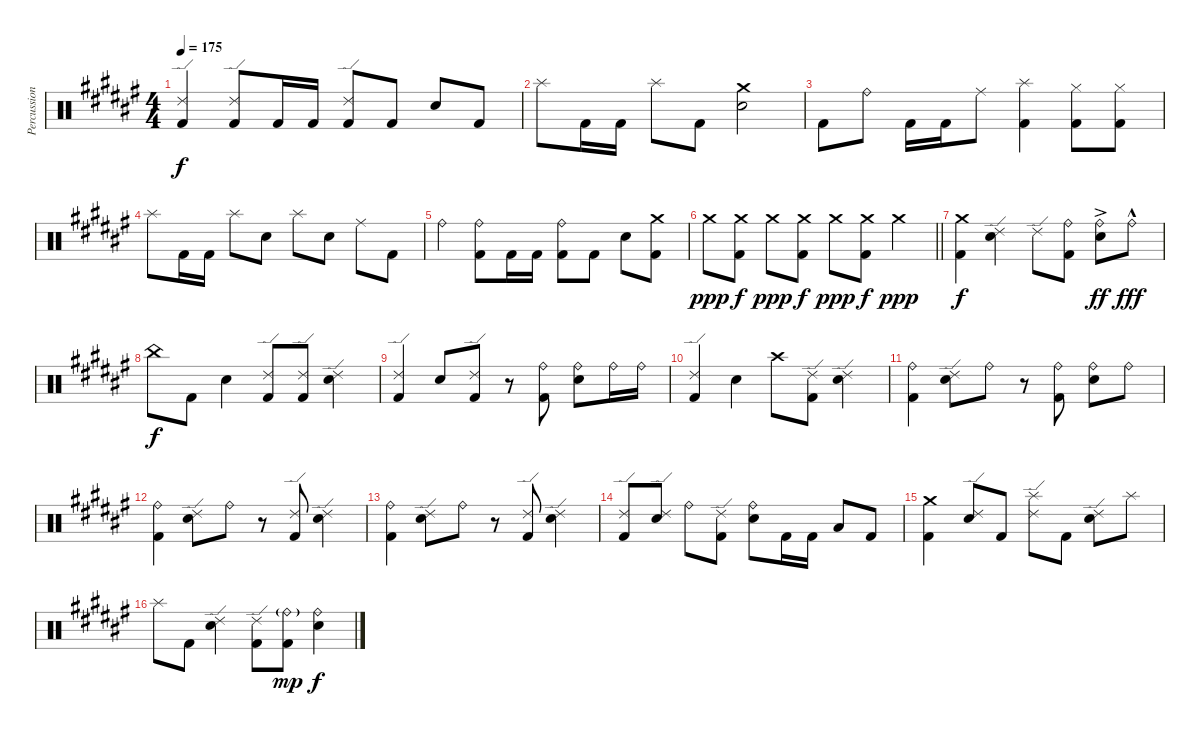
\track ("Percussions" "Percussion") {instrument percussion}
\staff {score}
\articulation defaults
\ts (4 4)
\tempo 175
\clef neutral
\ks f#
("Ride (edge) 2" "Kick (hit) 2").4{dy f} ("Ride (edge) 2" "Kick (hit) 2").8 "Kick (hit) 2".16 "Kick (hit) 2".16 ("Ride (edge) 2" "Kick (hit) 2").8 "Kick (hit) 2".8 "Snare (hit) 2".8 "Kick (hit) 2".8 |
"Splash (hit)".8 "Kick (hit) 2".16 "Kick (hit) 2".16 "Splash (hit)".8 "Kick (hit) 2".8 ("Crash medium (hit)" "Snare (hit) 2").2 |
"Kick (hit) 2".8 "Ride (bell)".8 "Kick (hit) 2".16 "Kick (hit) 2".16 "Ride (middle)".8 ("Splash (hit)" "Kick (hit) 2").4 ("Hi-Hat (closed)" "Kick (hit) 2").8 ("Hi-Hat (closed)" "Kick (hit) 2").8 |
"Splash (hit)".8 "Kick (hit) 2".16 "Kick (hit) 2".16 "Splash (hit)".8 "Snare (hit) 2".8 "Splash (hit)".8 "Snare (hit) 2".8 "Ride (middle)".8 "Kick (hit) 2".8 |
"Ride (bell)".4 ("Ride (bell)" "Kick (hit) 2").8 "Kick (hit) 2".16 "Kick (hit) 2".16 ("Ride (bell)" "Kick (hit) 2").8 "Kick (hit) 2".8 "Snare (hit) 2".8 ("Crash medium (hit)" "Kick (hit) 2").8 |
\barLineRight lightlight "Crash medium (hit)".8{dy ppp}
("Crash medium (hit)" "Kick (hit) 2").8{dy f} "Crash medium (hit)".8{dy ppp} ("Crash medium (hit)" "Kick (hit) 2").8{dy f} "Crash medium (hit)".8{dy ppp} ("Crash medium (hit)" "Kick (hit) 2").8{dy f} "Crash medium (hit)".4{dy ppp} |
("Crash medium (hit)" "Kick (hit) 2").4{dy f} ("Ride (edge) 2" "Snare (hit) 2").4 "Ride (edge) 2".8 ("Ride (bell)" "Kick (hit) 2").8 ("Ride (bell)"{ac} "Snare (hit) 2").8{dy ff} "Ride (bell)"{hac}.8{dy fff} |
"China (hit)".8{dy f} "Kick (hit) 2".8 "Snare (hit) 2".4 ("Ride (edge) 2" "Kick (hit) 2").8 ("Ride (edge) 2" "Kick (hit) 2").8 ("Ride (edge) 2" "Snare (hit) 2").4 |
("Ride (edge) 2" "Kick (hit) 2").4 "Snare (hit) 2".8 ("Ride (edge) 2" "Kick (hit) 2").8 r.8 ("Ride (bell)" "Kick (hit) 2").8 ("Ride (bell)" "Snare (hit) 2").8 "Ride (bell)".16 "Ride (bell)".16 |
("Ride (edge) 2" "Kick (hit) 2").4 "Snare (hit) 2".4 "Crash high (hit)".8 ("Ride (edge) 2" "Kick (hit) 2").8 ("Ride (edge) 2" "Snare (hit) 2").4 |
("Ride (bell)" "Kick (hit) 2").4 ("Ride (edge) 2" "Snare (hit) 2").8 "Ride (bell)".8 r.8 ("Ride (bell)" "Kick (hit) 2").8 ("Ride (bell)" "Snare (hit) 2").8 "Ride (bell)".8 |
("Ride (bell)" "Kick (hit) 2").4 ("Ride (edge) 2" "Snare (hit) 2").8 "Ride (bell)".8 r.8 ("Ride (edge) 2" "Kick (hit) 2").8 ("Ride (edge) 2" "Snare (hit) 2").4 |
("Ride (bell)" "Kick (hit) 2").4 ("Ride (edge) 2" "Snare (hit) 2").8 "Ride (bell)".8 r.8 ("Ride (edge) 2" "Kick (hit) 2").8 ("Ride (edge) 2" "Snare (hit) 2").4 |
("Ride (edge) 2" "Kick (hit) 2").8 ("Ride (edge) 2" "Snare (hit) 2").8 "Ride (bell)".8 ("Ride (edge) 2" "Kick (hit) 2").8 ("Ride (bell)" "Snare (hit) 2").8 "Kick (hit) 2".16 "Kick (hit) 2".16 "Low Tom (hit)".8 "Kick (hit) 2".8 |
("Crash medium (hit)" "Kick (hit) 2").4 ("Ride (edge) 2" "Snare (hit) 2").8 "Kick (hit) 2".8 ("Splash (hit)" "Ride (edge) 2").8 "Kick (hit) 2".8 ("Ride (edge) 2" "Snare (hit) 2").8 "Splash (hit)".8 |
"Splash (hit)".8 "Kick (hit) 2".8 ("Ride (edge) 2" "Snare (hit) 2").4 ("Ride (edge) 2" "Kick (hit) 2").8 ("Ride (bell)"{g} "Kick (hit) 2").8{dy mp} ("Ride (bell)" "Snare (hit) 2").4{dy f}
